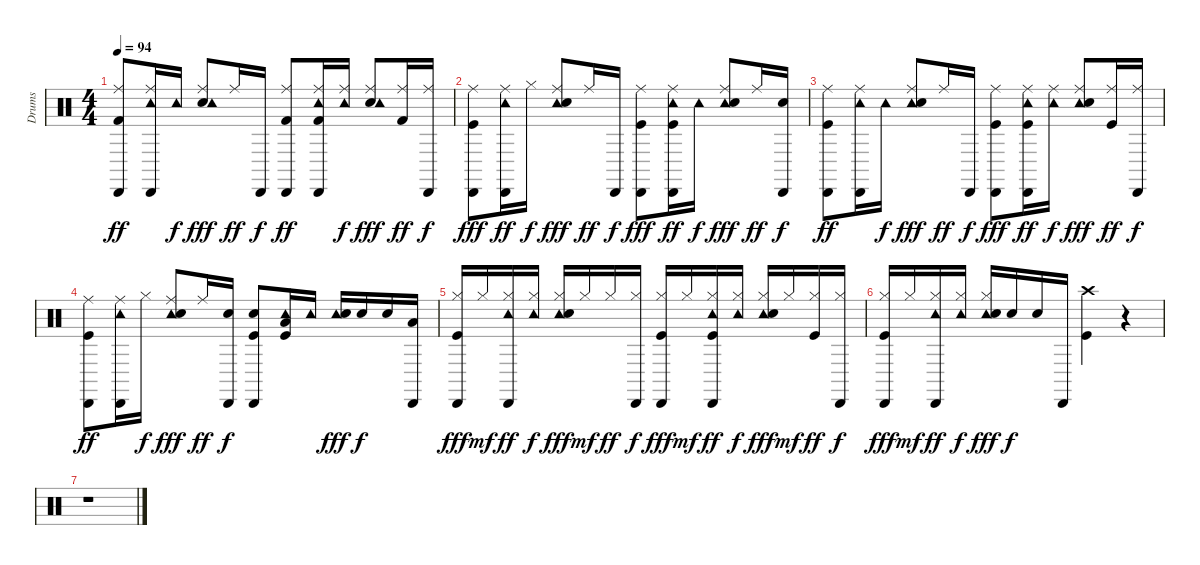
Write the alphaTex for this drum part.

\track ("Drums" "Drums") {instrument percussion}
\staff {score}
\articulation defaults
\ts (4 4)
\tempo 94
\clef neutral
\ks c
("Ride (middle)" "Kick (hit) 2" "Cabasa (hit)").8{dy ff} ("Cabasa (hit)" "Tambourine (hit)" "Ride (middle)").16 "Tambourine (hit)".16{dy f} ("Ride (middle)" "Snare (hit) 2" "Tambourine (hit)").8{dy fff} "Ride (middle)".16{dy ff} "Cabasa (hit)".16{dy f} ("Ride (middle)" "Kick (hit) 2" "Cabasa (hit)").8{dy ff} ("Ride (middle)" "Kick (hit) 2" "Tambourine (hit)" "Cabasa (hit)").16 ("Tambourine (hit)" "Ride (middle)").16{dy f} ("Snare (hit) 2" "Tambourine (hit)" "Ride (middle)").8{dy fff} ("Ride (middle)" "Kick (hit) 2").16{dy ff} ("Cabasa (hit)" "Ride (middle)").16{dy f} |
("Ride (middle)" "Cabasa (hit)" "Kick (hit)").8{dy fff} ("Ride (middle)" "Tambourine (hit)" "Cabasa (hit)").16{dy ff} "Hi-Hat (closed)".16{dy f} ("Ride (middle)" "Tambourine (hit)" "Snare (hit) 2").8{dy fff} "Ride (middle)".16{dy ff} "Cabasa (hit)".16{dy f} ("Ride (middle)" "Cabasa (hit)" "Kick (hit)").8{dy fff} ("Ride (middle)" "Tambourine (hit)" "Cabasa (hit)" "Kick (hit)").16{dy ff} "Tambourine (hit)".16{dy f} ("Ride (middle)" "Tambourine (hit)" "Snare (hit) 2").8{dy fff} "Ride (middle)".16{dy ff} ("Cabasa (hit)" "Snare (hit) 2").16{dy f} |
("Ride (middle)" "Cabasa (hit)" "Kick (hit)").8{dy ff} ("Ride (middle)" "Tambourine (hit)" "Cabasa (hit)").16 "Tambourine (hit)".16{dy f} ("Ride (middle)" "Tambourine (hit)" "Snare (hit) 2").8{dy fff} "Ride (middle)".16{dy ff} "Cabasa (hit)".16{dy f} ("Ride (middle)" "Cabasa (hit)" "Kick (hit)").8{dy fff} ("Ride (middle)" "Tambourine (hit)" "Cabasa (hit)" "Kick (hit)").16{dy ff} ("Ride (middle)" "Tambourine (hit)").16{dy f} ("Ride (middle)" "Tambourine (hit)" "Snare (hit) 2").8{dy fff} ("Ride (middle)" "Kick (hit)").16{dy ff} ("Ride (middle)" "Cabasa (hit)").16{dy f} |
("Ride (middle)" "Cabasa (hit)" "Kick (hit)").8{dy ff} ("Ride (middle)" "Tambourine (hit)" "Cabasa (hit)").16 "Hi-Hat (closed)".16{dy f} ("Ride (middle)" "Tambourine (hit)" "Snare (hit) 2").8{dy fff} "Ride (middle)".16{dy ff} ("Cabasa (hit)" "Snare (hit) 2").16{dy f} ("Cabasa (hit)" "Snare (hit) 2" "Kick (hit)").8 ("Tambourine (hit)" "Low Tom (hit)" "Kick (hit)").16 "Tambourine (hit)".16 ("Tambourine (hit)" "Snare (hit) 2").16{dy fff} "Snare (hit) 2".16{dy f} "Snare (hit) 2".16 ("Cabasa (hit)" "Low Floor Tom (hit)").16 |
("Hi-Hat (closed)" "Cabasa (hit)" "Kick (hit)").16{dy fff} "Hi-Hat (closed)".16{dy mf} ("Hi-Hat (closed)" "Tambourine (hit)" "Cabasa (hit)").16{dy ff} ("Hi-Hat (closed)" "Tambourine (hit)").16{dy f} ("Hi-Hat (closed)" "Tambourine (hit)" "Snare (hit) 2").16{dy fff} "Hi-Hat (closed)".16{dy mf} "Hi-Hat (closed)".16{dy ff} ("Hi-Hat (closed)" "Cabasa (hit)").16{dy f} ("Hi-Hat (closed)" "Cabasa (hit)" "Kick (hit)").16{dy fff} "Hi-Hat (closed)".16{dy mf} ("Hi-Hat (closed)" "Tambourine (hit)" "Cabasa (hit)" "Kick (hit)").16{dy ff} ("Hi-Hat (closed)" "Tambourine (hit)").16{dy f} ("Hi-Hat (closed)" "Tambourine (hit)" "Snare (hit) 2").16{dy fff} "Hi-Hat (closed)".16{dy mf} ("Hi-Hat (closed)" "Kick (hit)").16{dy ff} ("Hi-Hat (closed)" "Cabasa (hit)").16{dy f} |
("Hi-Hat (closed)" "Cabasa (hit)" "Kick (hit)").16{dy fff} "Hi-Hat (closed)".16{dy mf} ("Hi-Hat (closed)" "Tambourine (hit)" "Cabasa (hit)").16{dy ff} ("Hi-Hat (closed)" "Tambourine (hit)").16{dy f} ("Hi-Hat (closed)" "Tambourine (hit)" "Snare (hit) 2").16{dy fff} "Snare (hit) 2".16{dy f} "Snare (hit) 2".16 "Cabasa (hit)".16 ("Crash high (hit)" "Kick (hit)").4 r.4 |
r.1
